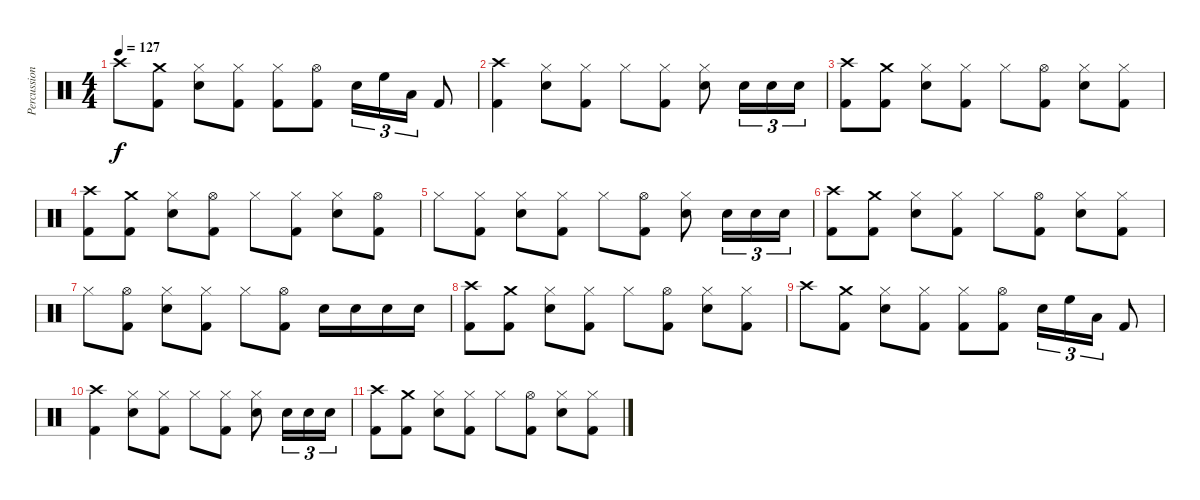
\track ("Percussion" "Percussion") {instrument percussion}
\staff {score}
\articulation defaults
\ts (4 4)
\tempo 127
\clef neutral
\ks c "Crash high (hit)".8{dy f}
("Kick (hit) 2" "Crash medium (hit)").8 ("Snare (hit) 2" "Hi-Hat (closed)").8 ("Kick (hit) 2" "Hi-Hat (closed)").8 ("Kick (hit) 2" "Hi-Hat (closed)").8 ("Kick (hit) 2" "Hi-Hat (open)").8 "Snare (hit) 2".16{tu (3 2)} "High Floor Tom (hit)".16{tu (3 2)} "Low Tom (hit)".16{tu (3 2)} "Kick (hit) 2".8 |
("Kick (hit) 2" "Crash high (hit)").4 ("Snare (hit) 2" "Hi-Hat (closed)").8 ("Kick (hit) 2" "Hi-Hat (closed)").8 "Hi-Hat (closed)".8 ("Kick (hit) 2" "Hi-Hat (closed)").8 ("Snare (hit) 2" "Hi-Hat (closed)").8 "Snare (hit) 2".16{tu (3 2)} "Snare (hit) 2".16{tu (3 2)} "Snare (hit) 2".16{tu (3 2)} |
("Kick (hit) 2" "Crash high (hit)").8 ("Kick (hit) 2" "Crash medium (hit)").8 ("Snare (hit) 2" "Hi-Hat (closed)").8 ("Kick (hit) 2" "Hi-Hat (closed)").8 "Hi-Hat (closed)".8 ("Kick (hit) 2" "Hi-Hat (open)").8 ("Snare (hit) 2" "Hi-Hat (closed)").8 ("Kick (hit) 2" "Hi-Hat (closed)").8 |
("Kick (hit) 2" "Crash high (hit)").8 ("Kick (hit) 2" "Crash medium (hit)").8 ("Snare (hit) 2" "Hi-Hat (closed)").8 ("Kick (hit) 2" "Hi-Hat (open)").8 "Hi-Hat (closed)".8 ("Kick (hit) 2" "Hi-Hat (closed)").8 ("Snare (hit) 2" "Hi-Hat (closed)").8 ("Kick (hit) 2" "Hi-Hat (open)").8 |
"Hi-Hat (closed)".8 ("Kick (hit) 2" "Hi-Hat (closed)").8 ("Snare (hit) 2" "Hi-Hat (closed)").8 ("Kick (hit) 2" "Hi-Hat (closed)").8 "Hi-Hat (closed)".8 ("Kick (hit) 2" "Hi-Hat (open)").8 ("Snare (hit) 2" "Hi-Hat (closed)").8 "Snare (hit) 2".16{tu (3 2)} "Snare (hit) 2".16{tu (3 2)} "Snare (hit) 2".16{tu (3 2)} |
("Kick (hit) 2" "Crash high (hit)").8 ("Kick (hit) 2" "Crash medium (hit)").8 ("Snare (hit) 2" "Hi-Hat (closed)").8 ("Kick (hit) 2" "Hi-Hat (closed)").8 "Hi-Hat (closed)".8 ("Kick (hit) 2" "Hi-Hat (open)").8 ("Snare (hit) 2" "Hi-Hat (closed)").8 ("Kick (hit) 2" "Hi-Hat (closed)").8 |
"Hi-Hat (closed)".8 ("Kick (hit) 2" "Hi-Hat (open)").8 ("Snare (hit) 2" "Hi-Hat (closed)").8 ("Kick (hit) 2" "Hi-Hat (closed)").8 "Hi-Hat (closed)".8 ("Kick (hit) 2" "Hi-Hat (open)").8 "Snare (hit) 2".16 "Snare (hit) 2".16 "Snare (hit) 2".16 "Snare (hit) 2".16 |
("Kick (hit) 2" "Crash high (hit)").8 ("Kick (hit) 2" "Crash medium (hit)").8 ("Snare (hit) 2" "Hi-Hat (closed)").8 ("Kick (hit) 2" "Hi-Hat (closed)").8 "Hi-Hat (closed)".8 ("Kick (hit) 2" "Hi-Hat (open)").8 ("Snare (hit) 2" "Hi-Hat (closed)").8 ("Kick (hit) 2" "Hi-Hat (closed)").8 |
"Crash high (hit)".8 ("Kick (hit) 2" "Crash medium (hit)").8 ("Snare (hit) 2" "Hi-Hat (closed)").8 ("Kick (hit) 2" "Hi-Hat (closed)").8 ("Kick (hit) 2" "Hi-Hat (closed)").8 ("Kick (hit) 2" "Hi-Hat (open)").8 "Snare (hit) 2".16{tu (3 2)} "High Floor Tom (hit)".16{tu (3 2)} "Low Tom (hit)".16{tu (3 2)} "Kick (hit) 2".8 |
("Kick (hit) 2" "Crash high (hit)").4 ("Snare (hit) 2" "Hi-Hat (closed)").8 ("Kick (hit) 2" "Hi-Hat (closed)").8 "Hi-Hat (closed)".8 ("Kick (hit) 2" "Hi-Hat (closed)").8 ("Snare (hit) 2" "Hi-Hat (closed)").8 "Snare (hit) 2".16{tu (3 2)} "Snare (hit) 2".16{tu (3 2)} "Snare (hit) 2".16{tu (3 2)} |
("Kick (hit) 2" "Crash high (hit)").8 ("Kick (hit) 2" "Crash medium (hit)").8 ("Snare (hit) 2" "Hi-Hat (closed)").8 ("Kick (hit) 2" "Hi-Hat (closed)").8 "Hi-Hat (closed)".8 ("Kick (hit) 2" "Hi-Hat (open)").8 ("Snare (hit) 2" "Hi-Hat (closed)").8 ("Kick (hit) 2" "Hi-Hat (closed)").8
